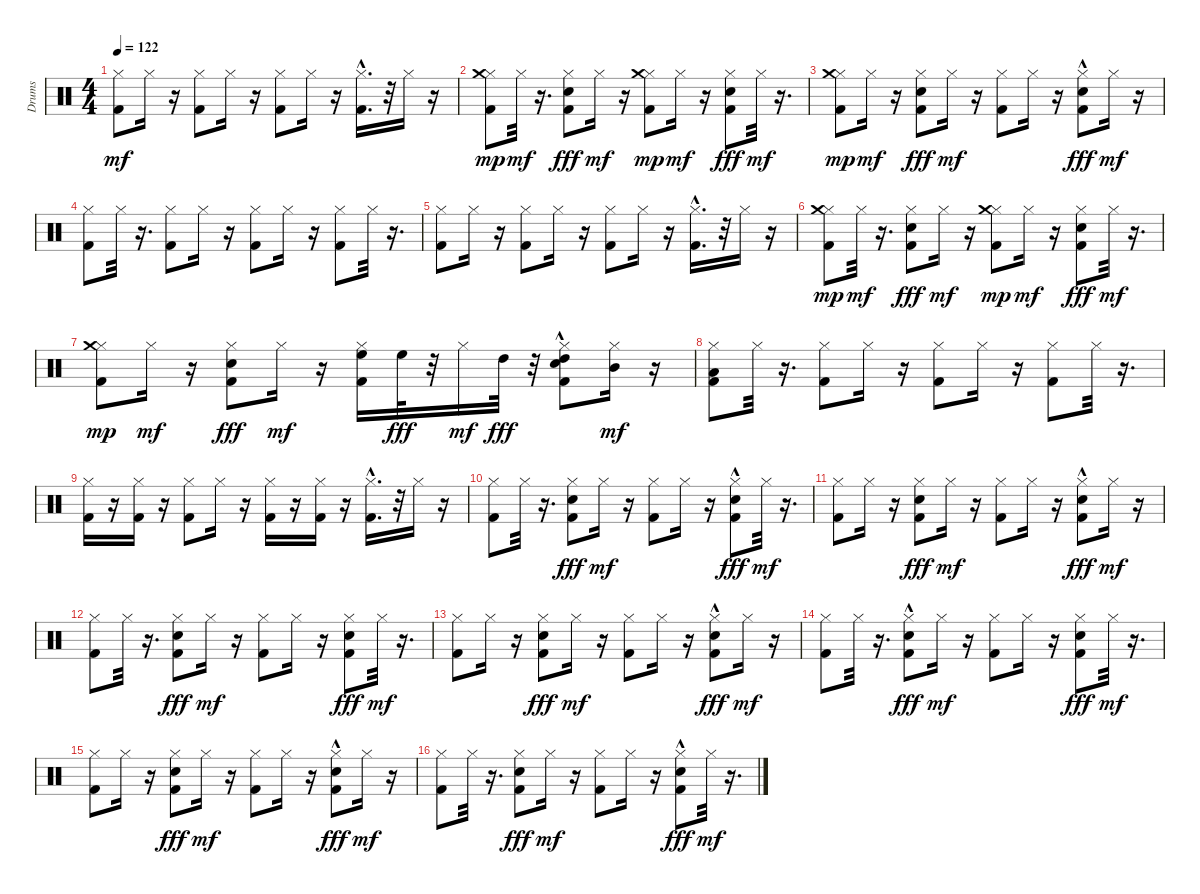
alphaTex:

\track ("Drums" "Drums") {instrument percussion}
\staff {score}
\articulation defaults
\ts (4 4)
\tempo 122
\clef neutral
\ks c
("Hi-Hat (closed)" "Kick (hit) 2").8{dy mf} "Hi-Hat (closed)".16 r.16 ("Hi-Hat (closed)" "Kick (hit) 2").8 "Hi-Hat (closed)".16 r.16 ("Hi-Hat (closed)" "Kick (hit) 2").8 "Hi-Hat (closed)".16 r.16 ("Hi-Hat (closed)" "Kick (hit) 2"{hac}).16{d} r.32 "Hi-Hat (closed)".16 r.16 |
("Hi-Hat (closed)" "Crash medium (hit)" "Kick (hit) 2").8{dy mp} "Hi-Hat (closed)".32{dy mf} r.16{d} ("Hi-Hat (closed)" "Electric Snare (hit)" "Kick (hit) 2").8{dy fff} "Hi-Hat (closed)".16{dy mf} r.16 ("Hi-Hat (closed)" "Crash medium (hit)" "Kick (hit) 2").8{dy mp} "Hi-Hat (closed)".16{dy mf} r.16 ("Hi-Hat (closed)" "Electric Snare (hit)" "Kick (hit) 2").8{dy fff} "Hi-Hat (closed)".32{dy mf} r.16{d} |
("Hi-Hat (closed)" "Crash medium (hit)" "Kick (hit) 2").8{dy mp} "Hi-Hat (closed)".16{dy mf} r.16 ("Hi-Hat (closed)" "Electric Snare (hit)" "Kick (hit) 2").8{dy fff} "Hi-Hat (closed)".16{dy mf} r.16 ("Hi-Hat (closed)" "Kick (hit) 2").8 "Hi-Hat (closed)".16 r.16 ("Hi-Hat (closed)" "Electric Snare (hit)" "Kick (hit) 2"{hac}).8{dy fff} "Hi-Hat (closed)".16{dy mf} r.16 |
("Hi-Hat (closed)" "Kick (hit) 2").8 "Hi-Hat (closed)".32 r.16{d} ("Hi-Hat (closed)" "Kick (hit) 2").8 "Hi-Hat (closed)".16 r.16 ("Hi-Hat (closed)" "Kick (hit) 2").8 "Hi-Hat (closed)".16 r.16 ("Hi-Hat (closed)" "Kick (hit) 2").8 "Hi-Hat (closed)".32 r.16{d} |
("Hi-Hat (closed)" "Kick (hit) 2").8 "Hi-Hat (closed)".16 r.16 ("Hi-Hat (closed)" "Kick (hit) 2").8 "Hi-Hat (closed)".16 r.16 ("Hi-Hat (closed)" "Kick (hit) 2").8 "Hi-Hat (closed)".16 r.16 ("Hi-Hat (closed)" "Kick (hit) 2"{hac}).16{d} r.32 "Hi-Hat (closed)".16 r.16 |
("Hi-Hat (closed)" "Crash medium (hit)" "Kick (hit) 2").8{dy mp} "Hi-Hat (closed)".32{dy mf} r.16{d} ("Hi-Hat (closed)" "Electric Snare (hit)" "Kick (hit) 2").8{dy fff} "Hi-Hat (closed)".16{dy mf} r.16 ("Hi-Hat (closed)" "Crash medium (hit)" "Kick (hit) 2").8{dy mp} "Hi-Hat (closed)".16{dy mf} r.16 ("Hi-Hat (closed)" "Electric Snare (hit)" "Kick (hit) 2").8{dy fff} "Hi-Hat (closed)".32{dy mf} r.16{d} |
("Hi-Hat (closed)" "Crash medium (hit)" "Kick (hit) 2").8{dy mp} "Hi-Hat (closed)".16{dy mf} r.16 ("Hi-Hat (closed)" "Electric Snare (hit)" "Kick (hit) 2").8{dy fff} "Hi-Hat (closed)".16{dy mf} r.16 ("High Floor Tom (hit)" "Hi-Hat (closed)" "Kick (hit) 2").16 "High Floor Tom (hit)".32{dy fff} r.32 "Hi-Hat (closed)".16{dy mf} "High Tom (hit)".32{dy fff} r.32 ("High Tom (hit)" "Hi-Hat (closed)" "Electric Snare (hit)" "Kick (hit) 2"{hac}).8 ("Mid Tom (hit)" "Hi-Hat (closed)").16{dy mf} r.16 |
("Low Tom (hit)" "Hi-Hat (closed)" "Kick (hit) 2").8 "Hi-Hat (closed)".32 r.16{d} ("Hi-Hat (closed)" "Kick (hit) 2").8 "Hi-Hat (closed)".16 r.16 ("Hi-Hat (closed)" "Kick (hit) 2").8 "Hi-Hat (closed)".16 r.16 ("Hi-Hat (closed)" "Kick (hit) 2").8 "Hi-Hat (closed)".32 r.16{d} |
("Hi-Hat (closed)" "Kick (hit) 2").16 r.16 ("Hi-Hat (closed)" "Kick (hit) 2").16 r.16 ("Hi-Hat (closed)" "Kick (hit) 2").8 "Hi-Hat (closed)".16 r.16 ("Hi-Hat (closed)" "Kick (hit) 2").16 r.16 ("Hi-Hat (closed)" "Kick (hit) 2").16 r.16 ("Hi-Hat (closed)" "Kick (hit) 2"{hac}).16{d} r.32 "Hi-Hat (closed)".16 r.16 |
("Hi-Hat (closed)" "Kick (hit) 2").8 "Hi-Hat (closed)".32 r.16{d} ("Hi-Hat (closed)" "Electric Snare (hit)" "Kick (hit) 2").8{dy fff} "Hi-Hat (closed)".16{dy mf} r.16 ("Hi-Hat (closed)" "Kick (hit) 2").8 "Hi-Hat (closed)".16 r.16 ("Hi-Hat (closed)" "Electric Snare (hit)"{hac} "Kick (hit) 2").8{dy fff} "Hi-Hat (closed)".32{dy mf} r.16{d} |
("Hi-Hat (closed)" "Kick (hit) 2").8 "Hi-Hat (closed)".16 r.16 ("Hi-Hat (closed)" "Electric Snare (hit)" "Kick (hit) 2").8{dy fff} "Hi-Hat (closed)".16{dy mf} r.16 ("Hi-Hat (closed)" "Kick (hit) 2").8 "Hi-Hat (closed)".16 r.16 ("Hi-Hat (closed)" "Electric Snare (hit)"{hac} "Kick (hit) 2"{hac}).8{dy fff} "Hi-Hat (closed)".16{dy mf} r.16 |
("Hi-Hat (closed)" "Kick (hit) 2").8 "Hi-Hat (closed)".32 r.16{d} ("Hi-Hat (closed)" "Electric Snare (hit)" "Kick (hit) 2").8{dy fff} "Hi-Hat (closed)".16{dy mf} r.16 ("Hi-Hat (closed)" "Kick (hit) 2").8 "Hi-Hat (closed)".16 r.16 ("Hi-Hat (closed)" "Electric Snare (hit)" "Kick (hit) 2").8{dy fff} "Hi-Hat (closed)".32{dy mf} r.16{d} |
("Hi-Hat (closed)" "Kick (hit) 2").8 "Hi-Hat (closed)".16 r.16 ("Hi-Hat (closed)" "Electric Snare (hit)" "Kick (hit) 2").8{dy fff} "Hi-Hat (closed)".16{dy mf} r.16 ("Hi-Hat (closed)" "Kick (hit) 2").8 "Hi-Hat (closed)".16 r.16 ("Hi-Hat (closed)" "Electric Snare (hit)" "Kick (hit) 2"{hac}).8{dy fff} "Hi-Hat (closed)".16{dy mf} r.16 |
("Hi-Hat (closed)" "Kick (hit) 2").8 "Hi-Hat (closed)".32 r.16{d} ("Hi-Hat (closed)" "Electric Snare (hit)"{hac} "Kick (hit) 2").8{dy fff} "Hi-Hat (closed)".16{dy mf} r.16 ("Hi-Hat (closed)" "Kick (hit) 2").8 "Hi-Hat (closed)".16 r.16 ("Hi-Hat (closed)" "Electric Snare (hit)" "Kick (hit) 2").8{dy fff} "Hi-Hat (closed)".32{dy mf} r.16{d} |
("Hi-Hat (closed)" "Kick (hit) 2").8 "Hi-Hat (closed)".16 r.16 ("Hi-Hat (closed)" "Electric Snare (hit)" "Kick (hit) 2").8{dy fff} "Hi-Hat (closed)".16{dy mf} r.16 ("Hi-Hat (closed)" "Kick (hit) 2").8 "Hi-Hat (closed)".16 r.16 ("Hi-Hat (closed)" "Electric Snare (hit)" "Kick (hit) 2"{hac}).8{dy fff} "Hi-Hat (closed)".16{dy mf} r.16 |
("Hi-Hat (closed)" "Kick (hit) 2").8 "Hi-Hat (closed)".32 r.16{d} ("Hi-Hat (closed)" "Electric Snare (hit)" "Kick (hit) 2").8{dy fff} "Hi-Hat (closed)".16{dy mf} r.16 ("Hi-Hat (closed)" "Kick (hit) 2").8 "Hi-Hat (closed)".16 r.16 ("Hi-Hat (closed)" "Electric Snare (hit)"{hac} "Kick (hit) 2").8{dy fff} "Hi-Hat (closed)".32{dy mf} r.16{d}
